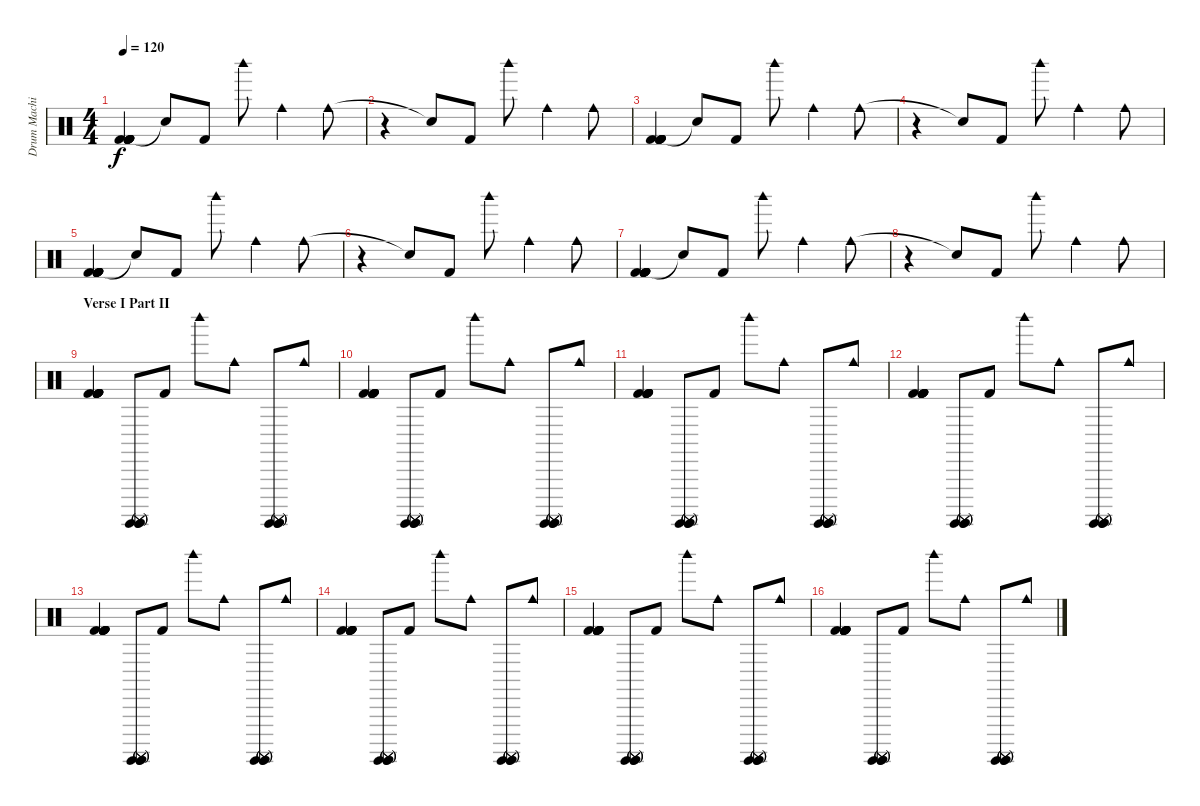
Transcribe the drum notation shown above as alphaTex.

\track ("Drum Machine" "Drum Machi") {instrument percussion}
\staff {score}
\articulation defaults
\ts (4 4)
\tempo 120
\clef neutral
\ks c
("Kick (hit) 2" "Kick (hit) 2" "Kick (hit) 2" "Kick (hit) 2" "Kick (hit) 2" "Kick (hit) 2").4{dy f} "Snare (hit)"{t}.8 "Kick (hit) 2".8 "Woodblock high (hit)".8 "Cowbell medium (hit)".4 "Cowbell medium (hit)".8 |
r.4 "Snare (hit)"{t}.8 "Kick (hit) 2".8 "Woodblock high (hit)".8 "Cowbell medium (hit)".4 "Cowbell medium (hit)".8 |
("Kick (hit) 2" "Kick (hit) 2" "Kick (hit) 2" "Kick (hit) 2" "Kick (hit) 2" "Kick (hit) 2").4 "Snare (hit)"{t}.8 "Kick (hit) 2".8 "Woodblock high (hit)".8 "Cowbell medium (hit)".4 "Cowbell medium (hit)".8 |
r.4 "Snare (hit)"{t}.8 "Kick (hit) 2".8 "Woodblock high (hit)".8 "Cowbell medium (hit)".4 "Cowbell medium (hit)".8 |
("Kick (hit) 2" "Kick (hit) 2" "Kick (hit) 2" "Kick (hit) 2" "Kick (hit) 2" "Kick (hit) 2").4 "Snare (hit)"{t}.8 "Kick (hit) 2".8 "Woodblock high (hit)".8 "Cowbell medium (hit)".4 "Cowbell medium (hit)".8 |
r.4 "Snare (hit)"{t}.8 "Kick (hit) 2".8 "Woodblock high (hit)".8 "Cowbell medium (hit)".4 "Cowbell medium (hit)".8 |
("Kick (hit) 2" "Kick (hit) 2" "Kick (hit) 2" "Kick (hit) 2" "Kick (hit) 2" "Kick (hit) 2").4 "Snare (hit)"{t}.8 "Kick (hit) 2".8 "Woodblock high (hit)".8 "Cowbell medium (hit)".4 "Cowbell medium (hit)".8 |
r.4 "Snare (hit)"{t}.8 "Kick (hit) 2".8 "Woodblock high (hit)".8 "Cowbell medium (hit)".4 "Cowbell medium (hit)".8 |
\section ("" "Verse I Part II")
("Kick (hit) 2" "Kick (hit) 2" "Kick (hit) 2" "Kick (hit) 2" "Kick (hit) 2" "Kick (hit) 2").4 ("Surdo (hit)" "Surdo (mute)" "Surdo (hit)" "Surdo (mute)" "Surdo (hit)" "Surdo (mute)").8 "Kick (hit) 2".8 "Woodblock high (hit)".8 "Cowbell medium (hit)".8 ("Surdo (hit)" "Surdo (mute)" "Surdo (hit)" "Surdo (mute)" "Surdo (hit)" "Surdo (mute)").8 "Cowbell medium (hit)".8 |
("Kick (hit) 2" "Kick (hit) 2" "Kick (hit) 2" "Kick (hit) 2" "Kick (hit) 2" "Kick (hit) 2").4 ("Surdo (hit)" "Surdo (mute)" "Surdo (hit)" "Surdo (mute)" "Surdo (hit)" "Surdo (mute)").8 "Kick (hit) 2".8 "Woodblock high (hit)".8 "Cowbell medium (hit)".8 ("Surdo (hit)" "Surdo (mute)" "Surdo (hit)" "Surdo (mute)" "Surdo (hit)" "Surdo (mute)").8 "Cowbell medium (hit)".8 |
("Kick (hit) 2" "Kick (hit) 2" "Kick (hit) 2" "Kick (hit) 2" "Kick (hit) 2" "Kick (hit) 2").4 ("Surdo (hit)" "Surdo (mute)" "Surdo (hit)" "Surdo (mute)" "Surdo (hit)" "Surdo (mute)").8 "Kick (hit) 2".8 "Woodblock high (hit)".8 "Cowbell medium (hit)".8 ("Surdo (hit)" "Surdo (mute)" "Surdo (hit)" "Surdo (mute)" "Surdo (hit)" "Surdo (mute)").8 "Cowbell medium (hit)".8 |
("Kick (hit) 2" "Kick (hit) 2" "Kick (hit) 2" "Kick (hit) 2" "Kick (hit) 2" "Kick (hit) 2").4 ("Surdo (hit)" "Surdo (mute)" "Surdo (hit)" "Surdo (mute)" "Surdo (hit)" "Surdo (mute)").8 "Kick (hit) 2".8 "Woodblock high (hit)".8 "Cowbell medium (hit)".8 ("Surdo (hit)" "Surdo (mute)" "Surdo (hit)" "Surdo (mute)" "Surdo (hit)" "Surdo (mute)").8 "Cowbell medium (hit)".8 |
("Kick (hit) 2" "Kick (hit) 2" "Kick (hit) 2" "Kick (hit) 2" "Kick (hit) 2" "Kick (hit) 2").4 ("Surdo (hit)" "Surdo (mute)" "Surdo (hit)" "Surdo (mute)" "Surdo (hit)" "Surdo (mute)").8 "Kick (hit) 2".8 "Woodblock high (hit)".8 "Cowbell medium (hit)".8 ("Surdo (hit)" "Surdo (mute)" "Surdo (hit)" "Surdo (mute)" "Surdo (hit)" "Surdo (mute)").8 "Cowbell medium (hit)".8 |
("Kick (hit) 2" "Kick (hit) 2" "Kick (hit) 2" "Kick (hit) 2" "Kick (hit) 2" "Kick (hit) 2").4 ("Surdo (hit)" "Surdo (mute)" "Surdo (hit)" "Surdo (mute)" "Surdo (hit)" "Surdo (mute)").8 "Kick (hit) 2".8 "Woodblock high (hit)".8 "Cowbell medium (hit)".8 ("Surdo (hit)" "Surdo (mute)" "Surdo (hit)" "Surdo (mute)" "Surdo (hit)" "Surdo (mute)").8 "Cowbell medium (hit)".8 |
("Kick (hit) 2" "Kick (hit) 2" "Kick (hit) 2" "Kick (hit) 2" "Kick (hit) 2" "Kick (hit) 2").4 ("Surdo (hit)" "Surdo (mute)" "Surdo (hit)" "Surdo (mute)" "Surdo (hit)" "Surdo (mute)").8 "Kick (hit) 2".8 "Woodblock high (hit)".8 "Cowbell medium (hit)".8 ("Surdo (hit)" "Surdo (mute)" "Surdo (hit)" "Surdo (mute)" "Surdo (hit)" "Surdo (mute)").8 "Cowbell medium (hit)".8 |
("Kick (hit) 2" "Kick (hit) 2" "Kick (hit) 2" "Kick (hit) 2" "Kick (hit) 2" "Kick (hit) 2").4 ("Surdo (hit)" "Surdo (mute)" "Surdo (hit)" "Surdo (mute)" "Surdo (hit)" "Surdo (mute)").8 "Kick (hit) 2".8 "Woodblock high (hit)".8 "Cowbell medium (hit)".8 ("Surdo (hit)" "Surdo (mute)" "Surdo (hit)" "Surdo (mute)" "Surdo (hit)" "Surdo (mute)").8 "Cowbell medium (hit)".8
